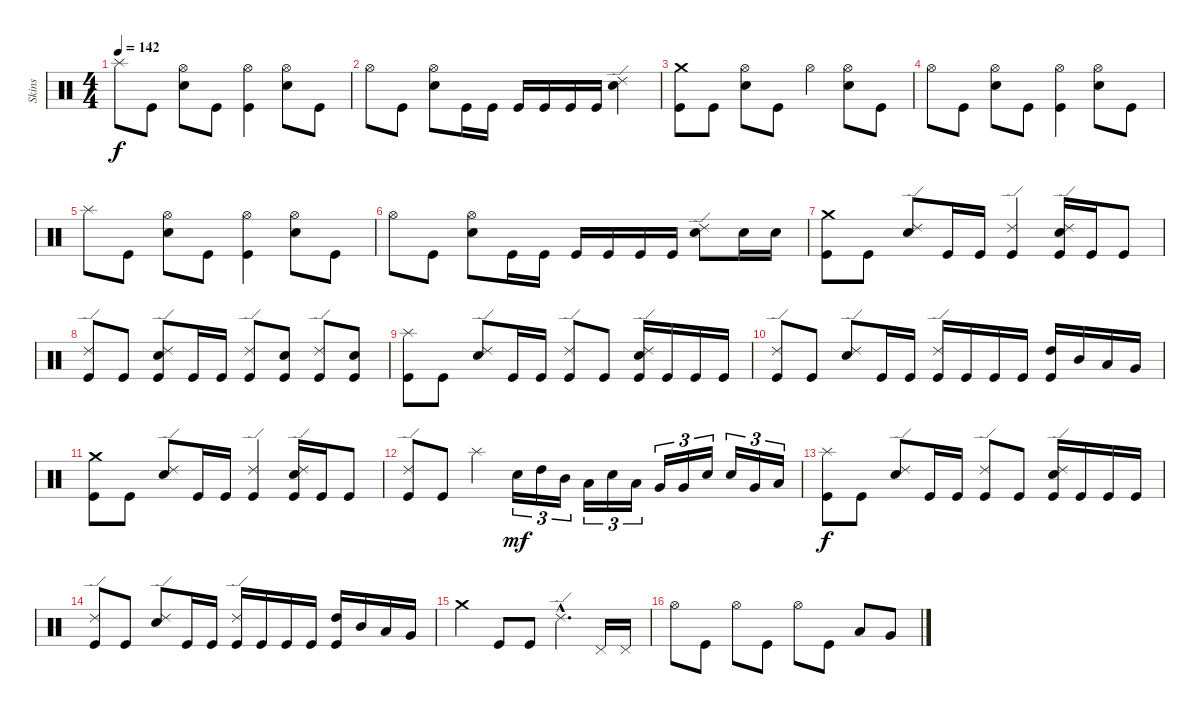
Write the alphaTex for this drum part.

\track ("Skins" "Skins") {instrument percussion}
\staff {score}
\articulation defaults
\ts (4 4)
\tempo 142
\clef neutral
\ks c "Splash (hit)".8{dy f} "Kick (hit)".8
("Hi-Hat (open)" "Electric Snare (hit)").8 "Kick (hit)".8 ("Hi-Hat (open)" "Kick (hit)").4 ("Hi-Hat (open)" "Electric Snare (hit)").8 "Kick (hit)".8 |
"Hi-Hat (open)".8 "Kick (hit)".8 ("Hi-Hat (open)" "Electric Snare (hit)").8 "Kick (hit)".16 "Kick (hit)".16 "Kick (hit)".16 "Kick (hit)".16 "Kick (hit)".16 "Kick (hit)".16 ("Ride (edge) 2" "Snare (hit) 2").4 |
("Crash medium (hit)" "Kick (hit)").8 "Kick (hit)".8 ("Hi-Hat (open)" "Electric Snare (hit)").8 "Kick (hit)".8 "Hi-Hat (open)".4 ("Hi-Hat (open)" "Electric Snare (hit)").8 "Kick (hit)".8 |
"Hi-Hat (open)".8 "Kick (hit)".8 ("Hi-Hat (open)" "Electric Snare (hit)").8 "Kick (hit)".8 ("Hi-Hat (open)" "Kick (hit)").4 ("Hi-Hat (open)" "Electric Snare (hit)").8 "Kick (hit)".8 |
"Splash (hit)".8 "Kick (hit)".8 ("Hi-Hat (open)" "Electric Snare (hit)").8 "Kick (hit)".8 ("Hi-Hat (open)" "Kick (hit)").4 ("Hi-Hat (open)" "Electric Snare (hit)").8 "Kick (hit)".8 |
"Hi-Hat (open)".8 "Kick (hit)".8 ("Hi-Hat (open)" "Electric Snare (hit)").8 "Kick (hit)".16 "Kick (hit)".16 "Kick (hit)".16 "Kick (hit)".16 "Kick (hit)".16 "Kick (hit)".16 ("Ride (edge) 2" "Snare (hit) 2").8 "Electric Snare (hit)".16 "Electric Snare (hit)".16 |
("Crash medium (hit)" "Kick (hit)").8 "Kick (hit)".8 ("Electric Snare (hit)" "Ride (edge) 2").8 "Kick (hit)".16 "Kick (hit)".16 ("Ride (edge) 2" "Kick (hit)").4 ("Electric Snare (hit)" "Ride (edge) 2" "Kick (hit)").16 "Kick (hit)".16 "Kick (hit)".8 |
("Ride (edge) 2" "Kick (hit)").8 "Kick (hit)".8 ("Electric Snare (hit)" "Ride (edge) 2" "Kick (hit)").8 "Kick (hit)".16 "Kick (hit)".16 ("Ride (edge) 2" "Kick (hit)").8 ("Electric Snare (hit)" "Kick (hit)").8 ("Ride (edge) 2" "Kick (hit)").8 ("Electric Snare (hit)" "Kick (hit)").8 |
("Splash (hit)" "Kick (hit)").8 "Kick (hit)".8 ("Electric Snare (hit)" "Ride (edge) 2").8 "Kick (hit)".16 "Kick (hit)".16 ("Ride (edge) 2" "Kick (hit)").8 "Kick (hit)".8 ("Electric Snare (hit)" "Ride (edge) 2" "Kick (hit)").16 "Kick (hit)".16 "Kick (hit)".16 "Kick (hit)".16 |
("Ride (edge) 2" "Kick (hit)").8 "Kick (hit)".8 ("Electric Snare (hit)" "Ride (edge) 2").8 "Kick (hit)".16 "Kick (hit)".16 ("Ride (edge) 2" "Kick (hit)").16 "Kick (hit)".16 "Kick (hit)".16 "Kick (hit)".16 ("High Tom (hit)" "Kick (hit)").16 "Mid Tom (hit)".16 "Low Tom (hit)".16 "Very Low Tom (hit)".16 |
("Crash medium (hit)" "Kick (hit)").8 "Kick (hit)".8 ("Electric Snare (hit)" "Ride (edge) 2").8 "Kick (hit)".16 "Kick (hit)".16 ("Ride (edge) 2" "Kick (hit)").4 ("Electric Snare (hit)" "Ride (edge) 2" "Kick (hit)").16 "Kick (hit)".16 "Kick (hit)".8 |
("Ride (edge) 2" "Kick (hit)").8 "Kick (hit)".8 "Splash (hit)".4 "Electric Snare (hit)".16{tu (3 2) dy mf} "High Tom (hit)".16{tu (3 2)} "Mid Tom (hit)".16{tu (3 2)} "Low Tom (hit)".16{tu (3 2)} "Electric Snare (hit)".16{tu (3 2)} "Low Tom (hit)".16{tu (3 2)} "Very Low Tom (hit)".16{tu (3 2)} "Very Low Tom (hit)".16{tu (3 2)} "Electric Snare (hit)".16{tu (3 2)} "Electric Snare (hit)".16{tu (3 2)} "Very Low Tom (hit)".16{tu (3 2)} "Low Floor Tom (hit)".16{tu (3 2)} |
("Splash (hit)" "Kick (hit)").8{dy f} "Kick (hit)".8 ("Electric Snare (hit)" "Ride (edge) 2").8 "Kick (hit)".16 "Kick (hit)".16 ("Ride (edge) 2" "Kick (hit)").8 "Kick (hit)".8 ("Electric Snare (hit)" "Ride (edge) 2" "Kick (hit)").16 "Kick (hit)".16 "Kick (hit)".16 "Kick (hit)".16 |
("Ride (edge) 2" "Kick (hit)").8 "Kick (hit)".8 ("Electric Snare (hit)" "Ride (edge) 2").8 "Kick (hit)".16 "Kick (hit)".16 ("Ride (edge) 2" "Kick (hit)").16 "Kick (hit)".16 "Kick (hit)".16 "Kick (hit)".16 ("High Tom (hit)" "Kick (hit)").16 "Mid Tom (hit)".16 "Low Tom (hit)".16 "Very Low Tom (hit)".16 |
"Crash medium (hit)".4 "Kick (hit)".8 "Kick (hit)".8 "Ride (edge) 2"{hac}.4{d} "Pedal Hi-Hat (hit)".16 "Pedal Hi-Hat (hit)".16 |
"Hi-Hat (open)".8 "Kick (hit)".8 "Hi-Hat (open)".8 "Kick (hit)".8 "Hi-Hat (open)".8 "Kick (hit)".8 "Low Tom (hit)".8 "Very Low Tom (hit)".8
